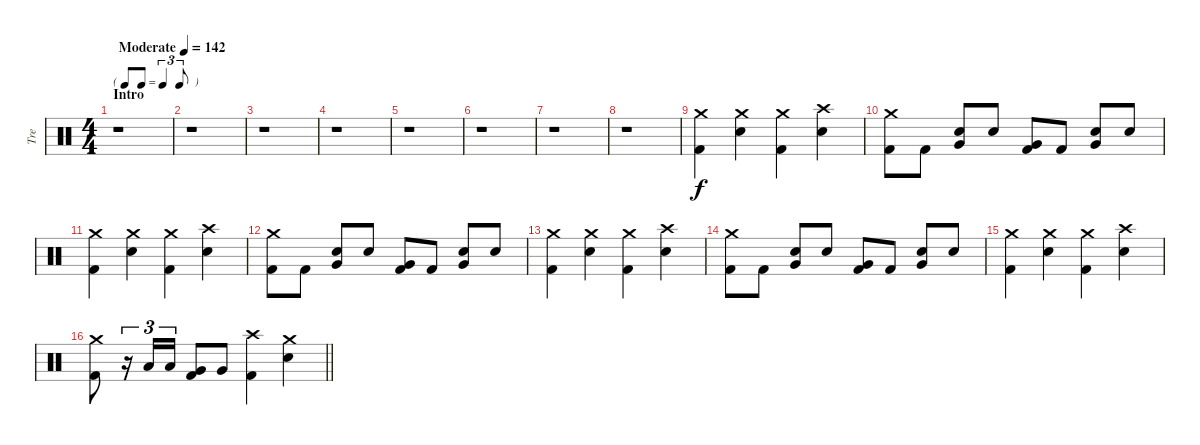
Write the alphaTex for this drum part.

\track ("Tre" "Tre") {instrument percussion}
\staff {score}
\articulation defaults
\ts (4 4)
\tf triplet8th
\section ("" "Intro")
\tempo (142 "Moderate")
\clef neutral
\ks c
r.1{dy f} |
r.1 |
r.1 |
r.1 |
r.1 |
r.1 |
r.1 |
r.1 |
("Crash medium (hit)" "Kick (hit) 2").4 ("Crash medium (hit)" "Snare (hit) 2").4 ("Crash medium (hit)" "Kick (hit) 2").4 ("Crash high (hit)" "Snare (hit) 2").4 |
("Crash medium (hit)" "Kick (hit) 2").8 "Kick (hit) 2".8 ("Snare (hit) 2" "Very Low Tom (hit)").8 "Snare (hit) 2".8 ("Very Low Tom (hit)" "Kick (hit) 2").8 "Kick (hit) 2".8 ("Snare (hit) 2" "Very Low Tom (hit)").8 "Snare (hit) 2".8 |
("Crash medium (hit)" "Kick (hit) 2").4 ("Crash medium (hit)" "Snare (hit) 2").4 ("Crash medium (hit)" "Kick (hit) 2").4 ("Crash high (hit)" "Snare (hit) 2").4 |
("Crash medium (hit)" "Kick (hit) 2").8 "Kick (hit) 2".8 ("Snare (hit) 2" "Very Low Tom (hit)").8 "Snare (hit) 2".8 ("Very Low Tom (hit)" "Kick (hit) 2").8 "Kick (hit) 2".8 ("Snare (hit) 2" "Very Low Tom (hit)").8 "Snare (hit) 2".8 |
("Crash medium (hit)" "Kick (hit) 2").4 ("Crash medium (hit)" "Snare (hit) 2").4 ("Crash medium (hit)" "Kick (hit) 2").4 ("Crash high (hit)" "Snare (hit) 2").4 |
("Crash medium (hit)" "Kick (hit) 2").8 "Kick (hit) 2".8 ("Snare (hit) 2" "Very Low Tom (hit)").8 "Snare (hit) 2".8 ("Very Low Tom (hit)" "Kick (hit) 2").8 "Kick (hit) 2".8 ("Snare (hit) 2" "Very Low Tom (hit)").8 "Snare (hit) 2".8 |
("Crash medium (hit)" "Kick (hit) 2").4 ("Crash medium (hit)" "Snare (hit) 2").4 ("Crash medium (hit)" "Kick (hit) 2").4 ("Crash high (hit)" "Snare (hit) 2").4 |
\barLineRight lightlight
("Crash medium (hit)" "Kick (hit) 2").8 r.16{tu (3 2)} "Low Tom (hit)".16{tu (3 2)} "Low Tom (hit)".16{tu (3 2)} ("Very Low Tom (hit)" "Kick (hit) 2").8 "Very Low Tom (hit)".8 ("Crash high (hit)" "Kick (hit) 2").4 ("Crash medium (hit)" "Snare (hit) 2").4
